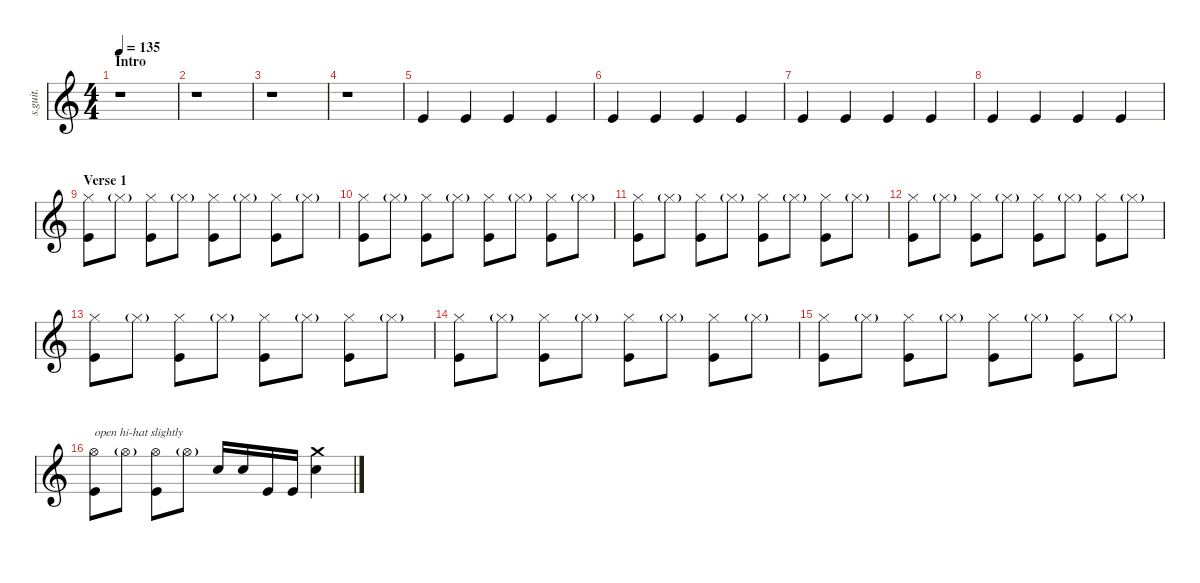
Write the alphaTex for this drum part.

\defaultSystemsLayout 4
\hideDynamics
\bracketExtendMode nobrackets
\track ("Jen Ledger" "s.guit.") {instrument percussion}
\staff {score}
\articulation defaults
\ts (4 4)
\beaming (8 2 2 2 2)
\section ("" "Intro")
\tempo 135
\clef g2
\ks c
r.1{dy fff} |
r.1 |
r.1 |
r.1 |
"Kick (hit)".4{lyrics (0 "") lyrics (1 "") lyrics (2 "") lyrics (3 "") lyrics (4 "")} "Kick (hit)".4{lyrics (0 "") lyrics (1 "") lyrics (2 "") lyrics (3 "") lyrics (4 "")} "Kick (hit)".4{lyrics (0 "") lyrics (1 "") lyrics (2 "") lyrics (3 "") lyrics (4 "")} "Kick (hit)".4{lyrics (0 "") lyrics (1 "") lyrics (2 "") lyrics (3 "") lyrics (4 "")} |
"Kick (hit)".4{lyrics (0 "") lyrics (1 "") lyrics (2 "") lyrics (3 "") lyrics (4 "")} "Kick (hit)".4{lyrics (0 "") lyrics (1 "") lyrics (2 "") lyrics (3 "") lyrics (4 "")} "Kick (hit)".4{lyrics (0 "") lyrics (1 "") lyrics (2 "") lyrics (3 "") lyrics (4 "")} "Kick (hit)".4{lyrics (0 "") lyrics (1 "") lyrics (2 "") lyrics (3 "") lyrics (4 "")} |
"Kick (hit)".4{lyrics (0 "") lyrics (1 "") lyrics (2 "") lyrics (3 "") lyrics (4 "")} "Kick (hit)".4{lyrics (0 "") lyrics (1 "") lyrics (2 "") lyrics (3 "") lyrics (4 "")} "Kick (hit)".4{lyrics (0 "") lyrics (1 "") lyrics (2 "") lyrics (3 "") lyrics (4 "")} "Kick (hit)".4{lyrics (0 "") lyrics (1 "") lyrics (2 "") lyrics (3 "") lyrics (4 "")} |
"Kick (hit)".4{lyrics (0 "") lyrics (1 "") lyrics (2 "") lyrics (3 "") lyrics (4 "")} "Kick (hit)".4{lyrics (0 "") lyrics (1 "") lyrics (2 "") lyrics (3 "") lyrics (4 "")} "Kick (hit)".4{lyrics (0 "") lyrics (1 "") lyrics (2 "") lyrics (3 "") lyrics (4 "")} "Kick (hit)".4{lyrics (0 "") lyrics (1 "") lyrics (2 "") lyrics (3 "") lyrics (4 "")} |
\section ("" "Verse 1")
("Hi-Hat (closed)" "Kick (hit)").8{lyrics (0 "") lyrics (1 "") lyrics (2 "") lyrics (3 "") lyrics (4 "")} "Hi-Hat (closed)"{g}.8{lyrics (0 "") lyrics (1 "") lyrics (2 "") lyrics (3 "") lyrics (4 "") dy ppp} ("Hi-Hat (closed)" "Kick (hit)").8{lyrics (0 "") lyrics (1 "") lyrics (2 "") lyrics (3 "") lyrics (4 "") dy f} "Hi-Hat (closed)"{g}.8{lyrics (0 "") lyrics (1 "") lyrics (2 "") lyrics (3 "") lyrics (4 "") dy ppp} ("Hi-Hat (closed)" "Kick (hit)").8{lyrics (0 "") lyrics (1 "") lyrics (2 "") lyrics (3 "") lyrics (4 "") dy f} "Hi-Hat (closed)"{g}.8{lyrics (0 "") lyrics (1 "") lyrics (2 "") lyrics (3 "") lyrics (4 "") dy ppp} ("Hi-Hat (closed)" "Kick (hit)").8{lyrics (0 "") lyrics (1 "") lyrics (2 "") lyrics (3 "") lyrics (4 "") dy f} "Hi-Hat (closed)"{g}.8{lyrics (0 "") lyrics (1 "") lyrics (2 "") lyrics (3 "") lyrics (4 "") dy ppp} |
("Hi-Hat (closed)" "Kick (hit)").8{lyrics (0 "") lyrics (1 "") lyrics (2 "") lyrics (3 "") lyrics (4 "") dy f} "Hi-Hat (closed)"{g}.8{lyrics (0 "") lyrics (1 "") lyrics (2 "") lyrics (3 "") lyrics (4 "") dy ppp} ("Hi-Hat (closed)" "Kick (hit)").8{lyrics (0 "") lyrics (1 "") lyrics (2 "") lyrics (3 "") lyrics (4 "") dy f} "Hi-Hat (closed)"{g}.8{lyrics (0 "") lyrics (1 "") lyrics (2 "") lyrics (3 "") lyrics (4 "") dy ppp} ("Hi-Hat (closed)" "Kick (hit)").8{lyrics (0 "") lyrics (1 "") lyrics (2 "") lyrics (3 "") lyrics (4 "") dy f} "Hi-Hat (closed)"{g}.8{lyrics (0 "") lyrics (1 "") lyrics (2 "") lyrics (3 "") lyrics (4 "") dy ppp} ("Hi-Hat (closed)" "Kick (hit)").8{lyrics (0 "") lyrics (1 "") lyrics (2 "") lyrics (3 "") lyrics (4 "") dy f} "Hi-Hat (closed)"{g}.8{lyrics (0 "") lyrics (1 "") lyrics (2 "") lyrics (3 "") lyrics (4 "") dy ppp} |
("Hi-Hat (closed)" "Kick (hit)").8{lyrics (0 "") lyrics (1 "") lyrics (2 "") lyrics (3 "") lyrics (4 "") dy f} "Hi-Hat (closed)"{g}.8{lyrics (0 "") lyrics (1 "") lyrics (2 "") lyrics (3 "") lyrics (4 "") dy ppp} ("Hi-Hat (closed)" "Kick (hit)").8{lyrics (0 "") lyrics (1 "") lyrics (2 "") lyrics (3 "") lyrics (4 "") dy f} "Hi-Hat (closed)"{g}.8{lyrics (0 "") lyrics (1 "") lyrics (2 "") lyrics (3 "") lyrics (4 "") dy ppp} ("Hi-Hat (closed)" "Kick (hit)").8{lyrics (0 "") lyrics (1 "") lyrics (2 "") lyrics (3 "") lyrics (4 "") dy f} "Hi-Hat (closed)"{g}.8{lyrics (0 "") lyrics (1 "") lyrics (2 "") lyrics (3 "") lyrics (4 "") dy ppp} ("Hi-Hat (closed)" "Kick (hit)").8{lyrics (0 "") lyrics (1 "") lyrics (2 "") lyrics (3 "") lyrics (4 "") dy f} "Hi-Hat (closed)"{g}.8{lyrics (0 "") lyrics (1 "") lyrics (2 "") lyrics (3 "") lyrics (4 "") dy ppp} |
("Hi-Hat (closed)" "Kick (hit)").8{lyrics (0 "") lyrics (1 "") lyrics (2 "") lyrics (3 "") lyrics (4 "") dy f} "Hi-Hat (closed)"{g}.8{lyrics (0 "") lyrics (1 "") lyrics (2 "") lyrics (3 "") lyrics (4 "") dy ppp} ("Hi-Hat (closed)" "Kick (hit)").8{lyrics (0 "") lyrics (1 "") lyrics (2 "") lyrics (3 "") lyrics (4 "") dy f} "Hi-Hat (closed)"{g}.8{lyrics (0 "") lyrics (1 "") lyrics (2 "") lyrics (3 "") lyrics (4 "") dy ppp} ("Hi-Hat (closed)" "Kick (hit)").8{lyrics (0 "") lyrics (1 "") lyrics (2 "") lyrics (3 "") lyrics (4 "") dy f} "Hi-Hat (closed)"{g}.8{lyrics (0 "") lyrics (1 "") lyrics (2 "") lyrics (3 "") lyrics (4 "") dy ppp} ("Hi-Hat (closed)" "Kick (hit)").8{lyrics (0 "") lyrics (1 "") lyrics (2 "") lyrics (3 "") lyrics (4 "") dy f} "Hi-Hat (closed)"{g}.8{lyrics (0 "") lyrics (1 "") lyrics (2 "") lyrics (3 "") lyrics (4 "") dy ppp} |
("Hi-Hat (closed)" "Kick (hit)").8{lyrics (0 "") lyrics (1 "") lyrics (2 "") lyrics (3 "") lyrics (4 "") dy f} "Hi-Hat (closed)"{g}.8{lyrics (0 "") lyrics (1 "") lyrics (2 "") lyrics (3 "") lyrics (4 "") dy ppp} ("Hi-Hat (closed)" "Kick (hit)").8{lyrics (0 "") lyrics (1 "") lyrics (2 "") lyrics (3 "") lyrics (4 "") dy f} "Hi-Hat (closed)"{g}.8{lyrics (0 "") lyrics (1 "") lyrics (2 "") lyrics (3 "") lyrics (4 "") dy ppp} ("Hi-Hat (closed)" "Kick (hit)").8{lyrics (0 "") lyrics (1 "") lyrics (2 "") lyrics (3 "") lyrics (4 "") dy f} "Hi-Hat (closed)"{g}.8{lyrics (0 "") lyrics (1 "") lyrics (2 "") lyrics (3 "") lyrics (4 "") dy ppp} ("Hi-Hat (closed)" "Kick (hit)").8{lyrics (0 "") lyrics (1 "") lyrics (2 "") lyrics (3 "") lyrics (4 "") dy f} "Hi-Hat (closed)"{g}.8{lyrics (0 "") lyrics (1 "") lyrics (2 "") lyrics (3 "") lyrics (4 "") dy ppp} |
("Hi-Hat (closed)" "Kick (hit)").8{lyrics (0 "") lyrics (1 "") lyrics (2 "") lyrics (3 "") lyrics (4 "") dy f} "Hi-Hat (closed)"{g}.8{lyrics (0 "") lyrics (1 "") lyrics (2 "") lyrics (3 "") lyrics (4 "") dy ppp} ("Hi-Hat (closed)" "Kick (hit)").8{lyrics (0 "") lyrics (1 "") lyrics (2 "") lyrics (3 "") lyrics (4 "") dy f} "Hi-Hat (closed)"{g}.8{lyrics (0 "") lyrics (1 "") lyrics (2 "") lyrics (3 "") lyrics (4 "") dy ppp} ("Hi-Hat (closed)" "Kick (hit)").8{lyrics (0 "") lyrics (1 "") lyrics (2 "") lyrics (3 "") lyrics (4 "") dy f} "Hi-Hat (closed)"{g}.8{lyrics (0 "") lyrics (1 "") lyrics (2 "") lyrics (3 "") lyrics (4 "") dy ppp} ("Hi-Hat (closed)" "Kick (hit)").8{lyrics (0 "") lyrics (1 "") lyrics (2 "") lyrics (3 "") lyrics (4 "") dy f} "Hi-Hat (closed)"{g}.8{lyrics (0 "") lyrics (1 "") lyrics (2 "") lyrics (3 "") lyrics (4 "") dy ppp} |
("Hi-Hat (closed)" "Kick (hit)").8{lyrics (0 "") lyrics (1 "") lyrics (2 "") lyrics (3 "") lyrics (4 "") dy f} "Hi-Hat (closed)"{g}.8{lyrics (0 "") lyrics (1 "") lyrics (2 "") lyrics (3 "") lyrics (4 "") dy ppp} ("Hi-Hat (closed)" "Kick (hit)").8{lyrics (0 "") lyrics (1 "") lyrics (2 "") lyrics (3 "") lyrics (4 "") dy f} "Hi-Hat (closed)"{g}.8{lyrics (0 "") lyrics (1 "") lyrics (2 "") lyrics (3 "") lyrics (4 "") dy ppp} ("Hi-Hat (closed)" "Kick (hit)").8{lyrics (0 "") lyrics (1 "") lyrics (2 "") lyrics (3 "") lyrics (4 "") dy f} "Hi-Hat (closed)"{g}.8{lyrics (0 "") lyrics (1 "") lyrics (2 "") lyrics (3 "") lyrics (4 "") dy ppp} ("Hi-Hat (closed)" "Kick (hit)").8{lyrics (0 "") lyrics (1 "") lyrics (2 "") lyrics (3 "") lyrics (4 "") dy f} "Hi-Hat (closed)"{g}.8{lyrics (0 "") lyrics (1 "") lyrics (2 "") lyrics (3 "") lyrics (4 "") dy ppp} |
("Hi-Hat (open)" "Kick (hit)").8{txt "open hi-hat slightly" lyrics (0 "") lyrics (1 "") lyrics (2 "") lyrics (3 "") lyrics (4 "") dy p} "Hi-Hat (open)"{g}.8{lyrics (0 "") lyrics (1 "") lyrics (2 "") lyrics (3 "") lyrics (4 "") dy ppp} ("Hi-Hat (open)" "Kick (hit)").8{lyrics (0 "") lyrics (1 "") lyrics (2 "") lyrics (3 "") lyrics (4 "") dy p} "Hi-Hat (open)"{g}.8{lyrics (0 "") lyrics (1 "") lyrics (2 "") lyrics (3 "") lyrics (4 "") dy ppp} "Snare (hit) 2".16{lyrics (0 "") lyrics (1 "") lyrics (2 "") lyrics (3 "") lyrics (4 "") dy f} "Snare (hit) 2".16{lyrics (0 "") lyrics (1 "") lyrics (2 "") lyrics (3 "") lyrics (4 "")} "Kick (hit)".16{lyrics (0 "") lyrics (1 "") lyrics (2 "") lyrics (3 "") lyrics (4 "") dy fff} "Kick (hit)".16{lyrics (0 "") lyrics (1 "") lyrics (2 "") lyrics (3 "") lyrics (4 "")} ("Crash medium (hit)" "Snare (hit) 2").4{lyrics (0 "") lyrics (1 "") lyrics (2 "") lyrics (3 "") lyrics (4 "") dy f}
